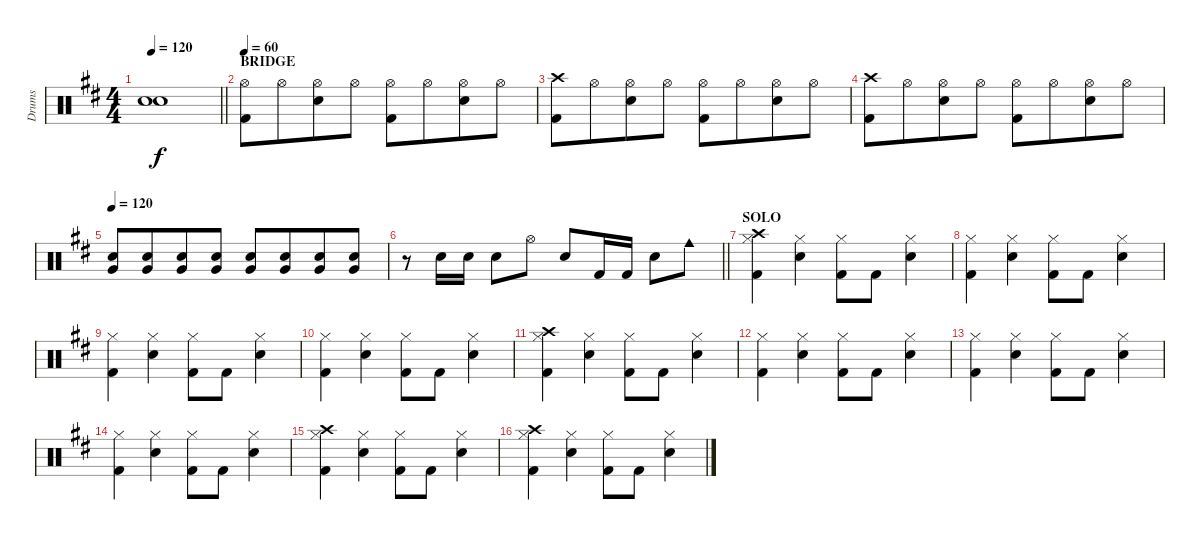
\track ("Drums" "Drums") {instrument percussion}
\staff {score}
\articulation defaults
\ts (4 4)
\tempo 120
\clef neutral
\barLineRight lightlight
\ks d
("Snare (hit)"{t} "Snare (hit)"{t}).1{dy f} |
\section ("" "BRIDGE")
\tempo 60
("Hi-Hat (open)" "Kick (hit) 2").8 "Hi-Hat (open)".8{beam merge} ("Hi-Hat (open)" "Electric Snare (hit)").8 "Hi-Hat (open)".8 ("Hi-Hat (open)" "Kick (hit) 2").8 "Hi-Hat (open)".8{beam merge} ("Hi-Hat (open)" "Electric Snare (hit)").8 "Hi-Hat (open)".8 |
("Crash high (hit)" "Kick (hit) 2").8 "Hi-Hat (open)".8{beam merge} ("Hi-Hat (open)" "Electric Snare (hit)").8 "Hi-Hat (open)".8 ("Hi-Hat (open)" "Kick (hit) 2").8 "Hi-Hat (open)".8{beam merge} ("Hi-Hat (open)" "Electric Snare (hit)").8 "Hi-Hat (open)".8 |
("Crash high (hit)" "Kick (hit) 2").8 "Hi-Hat (open)".8{beam merge} ("Hi-Hat (open)" "Electric Snare (hit)").8 "Hi-Hat (open)".8 ("Hi-Hat (open)" "Kick (hit) 2").8 "Hi-Hat (open)".8{beam merge} ("Hi-Hat (open)" "Electric Snare (hit)").8 "Hi-Hat (open)".8 |
\tempo 120
("Very Low Tom (hit)" "Electric Snare (hit)").8 ("Very Low Tom (hit)" "Electric Snare (hit)").8{beam merge} ("Very Low Tom (hit)" "Electric Snare (hit)").8 ("Very Low Tom (hit)" "Electric Snare (hit)").8 ("Very Low Tom (hit)" "Electric Snare (hit)").8 ("Very Low Tom (hit)" "Electric Snare (hit)").8{beam merge} ("Very Low Tom (hit)" "Electric Snare (hit)").8 ("Very Low Tom (hit)" "Electric Snare (hit)").8 |
\barLineRight lightlight
r.8 "Electric Snare (hit)".16 "Electric Snare (hit)".16 "Electric Snare (hit)".8 "Hi-Hat (open)".8 "Electric Snare (hit)".8 "Kick (hit) 2".16 "Kick (hit) 2".16 "Electric Snare (hit)".8 "Cowbell medium (hit)".8 |
\section ("" "SOLO")
("Crash high (hit)" "Hi-Hat (closed)" "Kick (hit) 2").4 ("Hi-Hat (closed)" "Electric Snare (hit)").4 ("Hi-Hat (closed)" "Kick (hit) 2").8 "Kick (hit) 2".8 ("Hi-Hat (closed)" "Electric Snare (hit)").4 |
("Hi-Hat (closed)" "Kick (hit) 2").4 ("Hi-Hat (closed)" "Electric Snare (hit)").4 ("Hi-Hat (closed)" "Kick (hit) 2").8 "Kick (hit) 2".8 ("Hi-Hat (closed)" "Electric Snare (hit)").4 |
("Hi-Hat (closed)" "Kick (hit) 2").4 ("Hi-Hat (closed)" "Electric Snare (hit)").4 ("Hi-Hat (closed)" "Kick (hit) 2").8 "Kick (hit) 2".8 ("Hi-Hat (closed)" "Electric Snare (hit)").4 |
("Hi-Hat (closed)" "Kick (hit) 2").4 ("Hi-Hat (closed)" "Electric Snare (hit)").4 ("Hi-Hat (closed)" "Kick (hit) 2").8 "Kick (hit) 2".8 ("Hi-Hat (closed)" "Electric Snare (hit)").4 |
("Crash high (hit)" "Hi-Hat (closed)" "Kick (hit) 2").4 ("Hi-Hat (closed)" "Electric Snare (hit)").4 ("Hi-Hat (closed)" "Kick (hit) 2").8 "Kick (hit) 2".8 ("Hi-Hat (closed)" "Electric Snare (hit)").4 |
("Hi-Hat (closed)" "Kick (hit) 2").4 ("Hi-Hat (closed)" "Electric Snare (hit)").4 ("Hi-Hat (closed)" "Kick (hit) 2").8 "Kick (hit) 2".8 ("Hi-Hat (closed)" "Electric Snare (hit)").4 |
("Hi-Hat (closed)" "Kick (hit) 2").4 ("Hi-Hat (closed)" "Electric Snare (hit)").4 ("Hi-Hat (closed)" "Kick (hit) 2").8 "Kick (hit) 2".8 ("Hi-Hat (closed)" "Electric Snare (hit)").4 |
("Hi-Hat (closed)" "Kick (hit) 2").4 ("Hi-Hat (closed)" "Electric Snare (hit)").4 ("Hi-Hat (closed)" "Kick (hit) 2").8 "Kick (hit) 2".8 ("Hi-Hat (closed)" "Electric Snare (hit)").4 |
("Crash high (hit)" "Hi-Hat (closed)" "Kick (hit) 2").4 ("Hi-Hat (closed)" "Electric Snare (hit)").4 ("Hi-Hat (closed)" "Kick (hit) 2").8 "Kick (hit) 2".8 ("Hi-Hat (closed)" "Electric Snare (hit)").4 |
("Crash high (hit)" "Hi-Hat (closed)" "Kick (hit) 2").4 ("Hi-Hat (closed)" "Electric Snare (hit)").4 ("Hi-Hat (closed)" "Kick (hit) 2").8 "Kick (hit) 2".8 ("Hi-Hat (closed)" "Electric Snare (hit)").4
